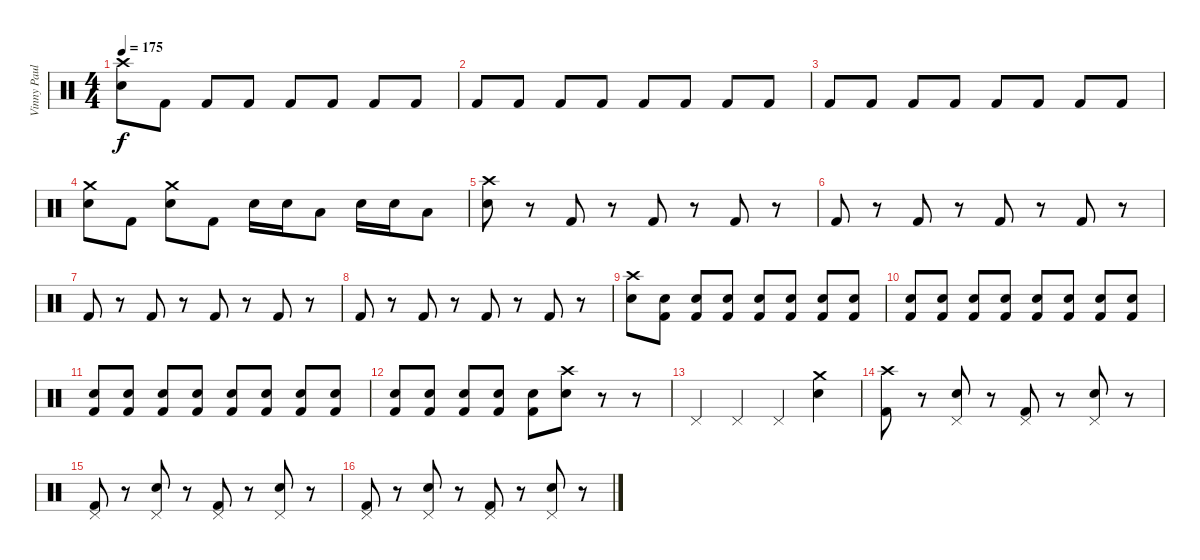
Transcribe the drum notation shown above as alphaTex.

\track ("Vinny Paul" "Vinny Paul") {instrument percussion}
\staff {score}
\articulation defaults
\ts (4 4)
\tempo 175
\clef neutral
\ks c
("Crash high (hit)" "Snare (hit) 2").8{dy f} "Kick (hit) 2".8 "Kick (hit) 2".8 "Kick (hit) 2".8 "Kick (hit) 2".8 "Kick (hit) 2".8 "Kick (hit) 2".8 "Kick (hit) 2".8 |
"Kick (hit) 2".8 "Kick (hit) 2".8 "Kick (hit) 2".8 "Kick (hit) 2".8 "Kick (hit) 2".8 "Kick (hit) 2".8 "Kick (hit) 2".8 "Kick (hit) 2".8 |
"Kick (hit) 2".8 "Kick (hit) 2".8 "Kick (hit) 2".8 "Kick (hit) 2".8 "Kick (hit) 2".8 "Kick (hit) 2".8 "Kick (hit) 2".8 "Kick (hit) 2".8 |
("Crash medium (hit)" "Snare (hit) 2").8 "Kick (hit) 2".8 ("Crash medium (hit)" "Snare (hit) 2").8 "Kick (hit) 2".8 "Snare (hit) 2".16 "Snare (hit) 2".16 "Low Tom (hit)".8 "Snare (hit) 2".16 "Snare (hit) 2".16 "Low Tom (hit)".8 |
("Crash high (hit)" "Snare (hit) 2").8 r.8 "Kick (hit) 2".8 r.8 "Kick (hit) 2".8 r.8 "Kick (hit) 2".8 r.8 |
"Kick (hit) 2".8 r.8 "Kick (hit) 2".8 r.8 "Kick (hit) 2".8 r.8 "Kick (hit) 2".8 r.8 |
"Kick (hit) 2".8 r.8 "Kick (hit) 2".8 r.8 "Kick (hit) 2".8 r.8 "Kick (hit) 2".8 r.8 |
"Kick (hit) 2".8 r.8 "Kick (hit) 2".8 r.8 "Kick (hit) 2".8 r.8 "Kick (hit) 2".8 r.8 |
("Crash high (hit)" "Snare (hit) 2").8 ("Snare (hit) 2" "Kick (hit) 2").8 ("Snare (hit) 2" "Kick (hit) 2").8 ("Snare (hit) 2" "Kick (hit) 2").8 ("Snare (hit) 2" "Kick (hit) 2").8 ("Snare (hit) 2" "Kick (hit) 2").8 ("Snare (hit) 2" "Kick (hit) 2").8 ("Snare (hit) 2" "Kick (hit) 2").8 |
("Snare (hit) 2" "Kick (hit) 2").8 ("Snare (hit) 2" "Kick (hit) 2").8 ("Snare (hit) 2" "Kick (hit) 2").8 ("Snare (hit) 2" "Kick (hit) 2").8 ("Snare (hit) 2" "Kick (hit) 2").8 ("Snare (hit) 2" "Kick (hit) 2").8 ("Snare (hit) 2" "Kick (hit) 2").8 ("Snare (hit) 2" "Kick (hit) 2").8 |
("Snare (hit) 2" "Kick (hit) 2").8 ("Snare (hit) 2" "Kick (hit) 2").8 ("Snare (hit) 2" "Kick (hit) 2").8 ("Snare (hit) 2" "Kick (hit) 2").8 ("Snare (hit) 2" "Kick (hit) 2").8 ("Snare (hit) 2" "Kick (hit) 2").8 ("Snare (hit) 2" "Kick (hit) 2").8 ("Snare (hit) 2" "Kick (hit) 2").8 |
("Snare (hit) 2" "Kick (hit) 2").8 ("Snare (hit) 2" "Kick (hit) 2").8 ("Snare (hit) 2" "Kick (hit) 2").8 ("Snare (hit) 2" "Kick (hit) 2").8 ("Snare (hit) 2" "Kick (hit) 2").8 ("Crash high (hit)" "Snare (hit) 2").8 r.8 r.8 |
"Pedal Hi-Hat (hit)".4 "Pedal Hi-Hat (hit)".4 "Pedal Hi-Hat (hit)".4 ("Crash medium (hit)" "Snare (hit) 2").4 |
("Crash high (hit)" "Kick (hit) 2").8 r.8 ("Pedal Hi-Hat (hit)" "Snare (hit) 2").8 r.8 ("Pedal Hi-Hat (hit)" "Kick (hit) 2").8 r.8 ("Pedal Hi-Hat (hit)" "Snare (hit) 2").8 r.8 |
("Pedal Hi-Hat (hit)" "Kick (hit) 2").8 r.8 ("Pedal Hi-Hat (hit)" "Snare (hit) 2").8 r.8 ("Pedal Hi-Hat (hit)" "Kick (hit) 2").8 r.8 ("Pedal Hi-Hat (hit)" "Snare (hit) 2").8 r.8 |
("Pedal Hi-Hat (hit)" "Kick (hit) 2").8 r.8 ("Pedal Hi-Hat (hit)" "Snare (hit) 2").8 r.8 ("Pedal Hi-Hat (hit)" "Kick (hit) 2").8 r.8 ("Pedal Hi-Hat (hit)" "Snare (hit) 2").8 r.8
